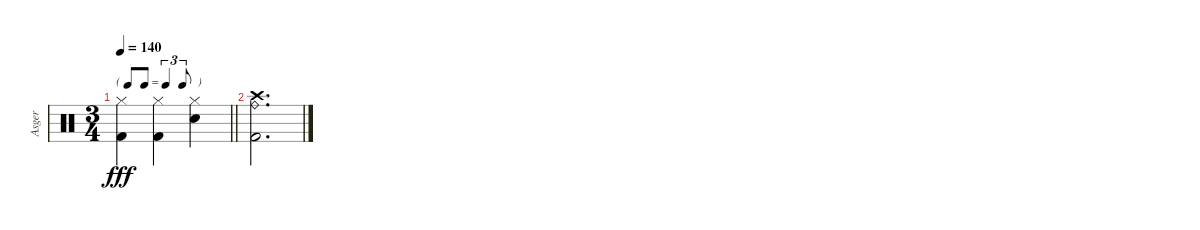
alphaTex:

\track ("Asger " "Asger ") {instrument percussion}
\staff {score}
\articulation defaults
\ts (3 4)
\tf triplet8th
\tempo 140
\clef neutral
\barLineRight lightlight
\ks c
("Hi-Hat (closed)" "Kick (hit) 2").4{dy fff} ("Hi-Hat (closed)" "Kick (hit) 2").4 ("Hi-Hat (closed)" "Snare (hit) 2").4 |
("Crash high (hit)" "Ride (bell)" "Kick (hit) 2").2{d}
